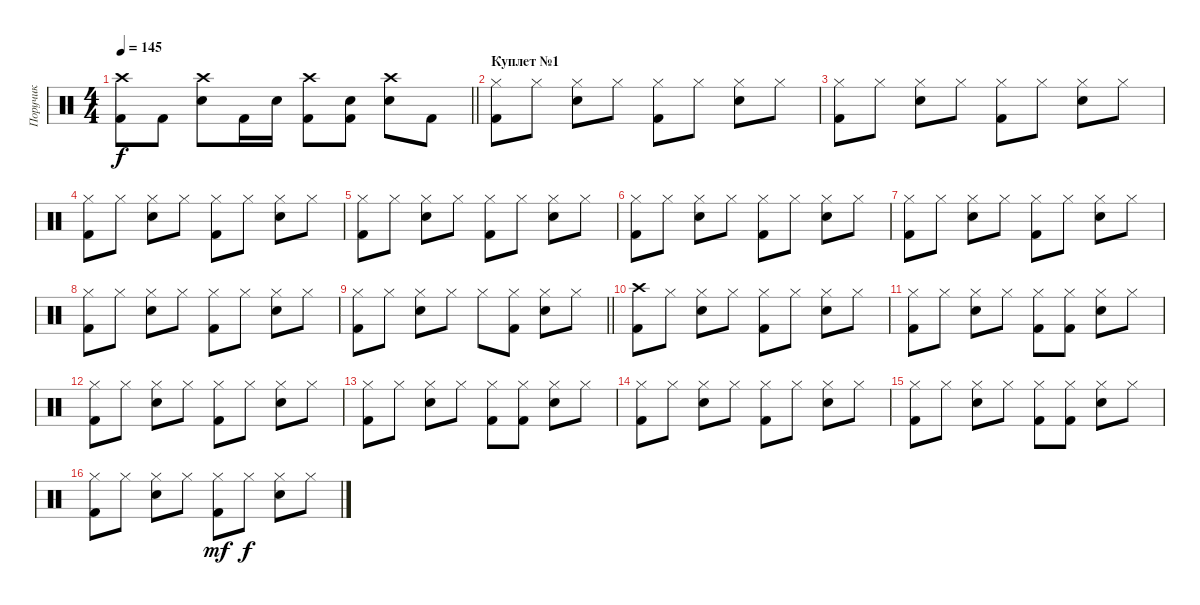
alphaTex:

\track ("Поручик" "Поручик") {instrument percussion}
\staff {score}
\articulation defaults
\ts (4 4)
\tempo 145
\clef neutral
\barLineRight lightlight
\ks c
("Crash high (hit)" "Kick (hit) 2").8{dy f} "Kick (hit) 2".8 ("Crash high (hit)" "Electric Snare (hit)").8 "Kick (hit) 2".16 "Electric Snare (hit)".16 ("Crash high (hit)" "Kick (hit) 2").8 ("Electric Snare (hit)" "Kick (hit) 2").8 ("Crash high (hit)" "Electric Snare (hit)").8 "Kick (hit) 2".8 |
\section ("" "Куплет №1")
("Hi-Hat (closed)" "Kick (hit) 2").8 "Hi-Hat (closed)".8 ("Hi-Hat (closed)" "Electric Snare (hit)").8 "Hi-Hat (closed)".8 ("Hi-Hat (closed)" "Kick (hit) 2").8 "Hi-Hat (closed)".8 ("Hi-Hat (closed)" "Electric Snare (hit)").8 "Hi-Hat (closed)".8 |
("Hi-Hat (closed)" "Kick (hit) 2").8 "Hi-Hat (closed)".8 ("Hi-Hat (closed)" "Electric Snare (hit)").8 "Hi-Hat (closed)".8 ("Hi-Hat (closed)" "Kick (hit) 2").8 "Hi-Hat (closed)".8 ("Hi-Hat (closed)" "Electric Snare (hit)").8 "Hi-Hat (closed)".8 |
("Hi-Hat (closed)" "Kick (hit) 2").8 "Hi-Hat (closed)".8 ("Hi-Hat (closed)" "Electric Snare (hit)").8 "Hi-Hat (closed)".8 ("Hi-Hat (closed)" "Kick (hit) 2").8 "Hi-Hat (closed)".8 ("Hi-Hat (closed)" "Electric Snare (hit)").8 "Hi-Hat (closed)".8 |
("Hi-Hat (closed)" "Kick (hit) 2").8 "Hi-Hat (closed)".8 ("Hi-Hat (closed)" "Electric Snare (hit)").8 "Hi-Hat (closed)".8 ("Hi-Hat (closed)" "Kick (hit) 2").8 "Hi-Hat (closed)".8 ("Hi-Hat (closed)" "Electric Snare (hit)").8 "Hi-Hat (closed)".8 |
("Hi-Hat (closed)" "Kick (hit) 2").8 "Hi-Hat (closed)".8 ("Hi-Hat (closed)" "Electric Snare (hit)").8 "Hi-Hat (closed)".8 ("Hi-Hat (closed)" "Kick (hit) 2").8 "Hi-Hat (closed)".8 ("Hi-Hat (closed)" "Electric Snare (hit)").8 "Hi-Hat (closed)".8 |
("Hi-Hat (closed)" "Kick (hit) 2").8 "Hi-Hat (closed)".8 ("Hi-Hat (closed)" "Electric Snare (hit)").8 "Hi-Hat (closed)".8 ("Hi-Hat (closed)" "Kick (hit) 2").8 "Hi-Hat (closed)".8 ("Hi-Hat (closed)" "Electric Snare (hit)").8 "Hi-Hat (closed)".8 |
("Hi-Hat (closed)" "Kick (hit) 2").8 "Hi-Hat (closed)".8 ("Hi-Hat (closed)" "Electric Snare (hit)").8 "Hi-Hat (closed)".8 ("Hi-Hat (closed)" "Kick (hit) 2").8 "Hi-Hat (closed)".8 ("Hi-Hat (closed)" "Electric Snare (hit)").8 "Hi-Hat (closed)".8 |
\barLineRight lightlight
("Hi-Hat (closed)" "Kick (hit) 2").8 "Hi-Hat (closed)".8 ("Hi-Hat (closed)" "Electric Snare (hit)").8 "Hi-Hat (closed)".8 "Hi-Hat (closed)".8 ("Hi-Hat (closed)" "Kick (hit) 2").8 ("Hi-Hat (closed)" "Electric Snare (hit)").8 "Hi-Hat (closed)".8 |
("Crash high (hit)" "Kick (hit) 2").8 "Hi-Hat (closed)".8 ("Hi-Hat (closed)" "Electric Snare (hit)").8 "Hi-Hat (closed)".8 ("Hi-Hat (closed)" "Kick (hit) 2").8 "Hi-Hat (closed)".8 ("Hi-Hat (closed)" "Electric Snare (hit)").8 "Hi-Hat (closed)".8 |
("Hi-Hat (closed)" "Kick (hit) 2").8 "Hi-Hat (closed)".8 ("Hi-Hat (closed)" "Electric Snare (hit)").8 "Hi-Hat (closed)".8 ("Hi-Hat (closed)" "Kick (hit) 2").8 ("Hi-Hat (closed)" "Kick (hit) 2").8 ("Hi-Hat (closed)" "Electric Snare (hit)").8 "Hi-Hat (closed)".8 |
("Hi-Hat (closed)" "Kick (hit) 2").8 "Hi-Hat (closed)".8 ("Hi-Hat (closed)" "Electric Snare (hit)").8 "Hi-Hat (closed)".8 ("Hi-Hat (closed)" "Kick (hit) 2").8 "Hi-Hat (closed)".8 ("Hi-Hat (closed)" "Electric Snare (hit)").8 "Hi-Hat (closed)".8 |
("Hi-Hat (closed)" "Kick (hit) 2").8 "Hi-Hat (closed)".8 ("Hi-Hat (closed)" "Electric Snare (hit)").8 "Hi-Hat (closed)".8 ("Hi-Hat (closed)" "Kick (hit) 2").8 ("Hi-Hat (closed)" "Kick (hit) 2").8 ("Hi-Hat (closed)" "Electric Snare (hit)").8 "Hi-Hat (closed)".8 |
("Hi-Hat (closed)" "Kick (hit) 2").8 "Hi-Hat (closed)".8 ("Hi-Hat (closed)" "Electric Snare (hit)").8 "Hi-Hat (closed)".8 ("Hi-Hat (closed)" "Kick (hit) 2").8 "Hi-Hat (closed)".8 ("Hi-Hat (closed)" "Electric Snare (hit)").8 "Hi-Hat (closed)".8 |
("Hi-Hat (closed)" "Kick (hit) 2").8 "Hi-Hat (closed)".8 ("Hi-Hat (closed)" "Electric Snare (hit)").8 "Hi-Hat (closed)".8 ("Hi-Hat (closed)" "Kick (hit) 2").8 ("Hi-Hat (closed)" "Kick (hit) 2").8 ("Hi-Hat (closed)" "Electric Snare (hit)").8 "Hi-Hat (closed)".8 |
("Hi-Hat (closed)" "Kick (hit) 2").8 "Hi-Hat (closed)".8 ("Hi-Hat (closed)" "Electric Snare (hit)").8 "Hi-Hat (closed)".8 ("Hi-Hat (closed)" "Kick (hit) 2").8{dy mf} "Hi-Hat (closed)".8{dy f} ("Hi-Hat (closed)" "Electric Snare (hit)").8 "Hi-Hat (closed)".8
